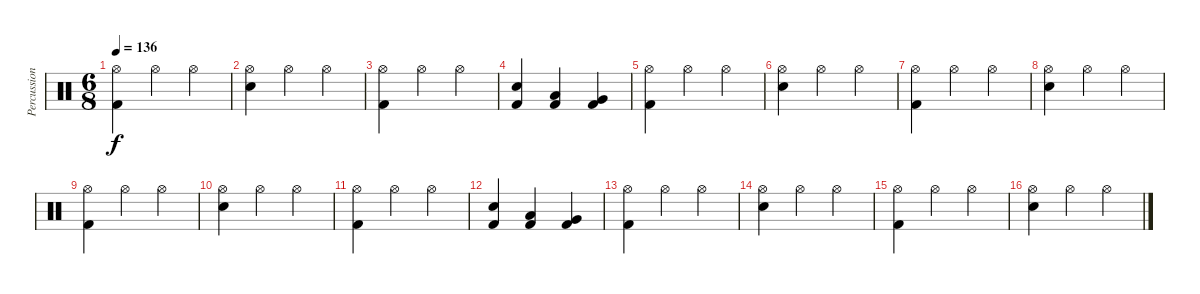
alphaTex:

\track ("Percussion" "Percussion") {instrument percussion}
\staff {score}
\articulation defaults
\ts (6 8)
\tempo 136
\clef neutral
\ks c
("Hi-Hat (open)" "Kick (hit) 2").4{dy f} "Hi-Hat (open)".4 "Hi-Hat (open)".4 |
("Hi-Hat (open)" "Snare (hit) 2").4 "Hi-Hat (open)".4 "Hi-Hat (open)".4 |
("Hi-Hat (open)" "Kick (hit) 2").4 "Hi-Hat (open)".4 "Hi-Hat (open)".4 |
("Snare (hit) 2" "Kick (hit) 2").4 ("Low Tom (hit)" "Kick (hit) 2").4 ("Very Low Tom (hit)" "Kick (hit) 2").4 |
("Hi-Hat (open)" "Kick (hit) 2").4 "Hi-Hat (open)".4 "Hi-Hat (open)".4 |
("Hi-Hat (open)" "Snare (hit) 2").4 "Hi-Hat (open)".4 "Hi-Hat (open)".4 |
("Hi-Hat (open)" "Kick (hit) 2").4 "Hi-Hat (open)".4 "Hi-Hat (open)".4 |
("Hi-Hat (open)" "Snare (hit) 2").4 "Hi-Hat (open)".4 "Hi-Hat (open)".4 |
("Hi-Hat (open)" "Kick (hit) 2").4 "Hi-Hat (open)".4 "Hi-Hat (open)".4 |
("Hi-Hat (open)" "Snare (hit) 2").4 "Hi-Hat (open)".4 "Hi-Hat (open)".4 |
("Hi-Hat (open)" "Kick (hit) 2").4 "Hi-Hat (open)".4 "Hi-Hat (open)".4 |
("Snare (hit) 2" "Kick (hit) 2").4 ("Low Tom (hit)" "Kick (hit) 2").4 ("Very Low Tom (hit)" "Kick (hit) 2").4 |
("Hi-Hat (open)" "Kick (hit) 2").4 "Hi-Hat (open)".4 "Hi-Hat (open)".4 |
("Hi-Hat (open)" "Snare (hit) 2").4 "Hi-Hat (open)".4 "Hi-Hat (open)".4 |
("Hi-Hat (open)" "Kick (hit) 2").4 "Hi-Hat (open)".4 "Hi-Hat (open)".4 |
("Hi-Hat (open)" "Snare (hit) 2").4 "Hi-Hat (open)".4 "Hi-Hat (open)".4
